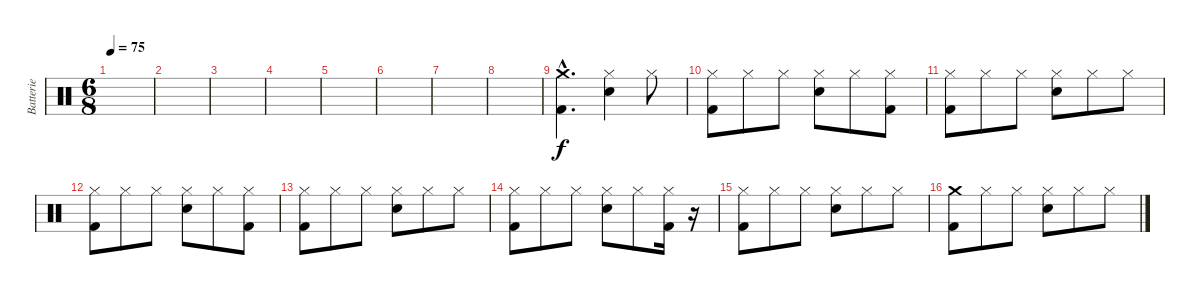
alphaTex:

\track ("Batterie" "Batterie") {instrument percussion}
\staff {score}
\articulation defaults
\ts (6 8)
\tempo 75
\clef neutral
\ks c
|
|
|
|
|
|
|
|
("Kick (hit) 2"{hac} "Crash medium (hit)"{hac}).4{d} ("Snare (hit) 2" "Hi-Hat (closed)").4 "Hi-Hat (closed)".8 |
("Kick (hit) 2" "Hi-Hat (closed)").8 "Hi-Hat (closed)".8 "Hi-Hat (closed)".8 ("Snare (hit) 2" "Hi-Hat (closed)").8 "Hi-Hat (closed)".8 ("Kick (hit) 2" "Hi-Hat (closed)").8 |
("Kick (hit) 2" "Hi-Hat (closed)").8 "Hi-Hat (closed)".8 "Hi-Hat (closed)".8 ("Snare (hit) 2" "Hi-Hat (closed)").8 "Hi-Hat (closed)".8 "Hi-Hat (closed)".8 |
("Kick (hit) 2" "Hi-Hat (closed)").8 "Hi-Hat (closed)".8 "Hi-Hat (closed)".8 ("Snare (hit) 2" "Hi-Hat (closed)").8 "Hi-Hat (closed)".8 ("Kick (hit) 2" "Hi-Hat (closed)").8 |
("Kick (hit) 2" "Hi-Hat (closed)").8 "Hi-Hat (closed)".8 "Hi-Hat (closed)".8 ("Snare (hit) 2" "Hi-Hat (closed)").8 "Hi-Hat (closed)".8 "Hi-Hat (closed)".8 |
("Kick (hit) 2" "Hi-Hat (closed)").8 "Hi-Hat (closed)".8 "Hi-Hat (closed)".8 ("Snare (hit) 2" "Hi-Hat (closed)").8 "Hi-Hat (closed)".8 ("Kick (hit) 2" "Hi-Hat (closed)").16 r.16 |
("Kick (hit) 2" "Hi-Hat (closed)").8 "Hi-Hat (closed)".8 "Hi-Hat (closed)".8 ("Snare (hit) 2" "Hi-Hat (closed)").8 "Hi-Hat (closed)".8 "Hi-Hat (closed)".8 |
("Crash medium (hit)" "Kick (hit) 2").8 "Hi-Hat (closed)".8 "Hi-Hat (closed)".8 ("Snare (hit) 2" "Hi-Hat (closed)").8 "Hi-Hat (closed)".8 "Hi-Hat (closed)".8
